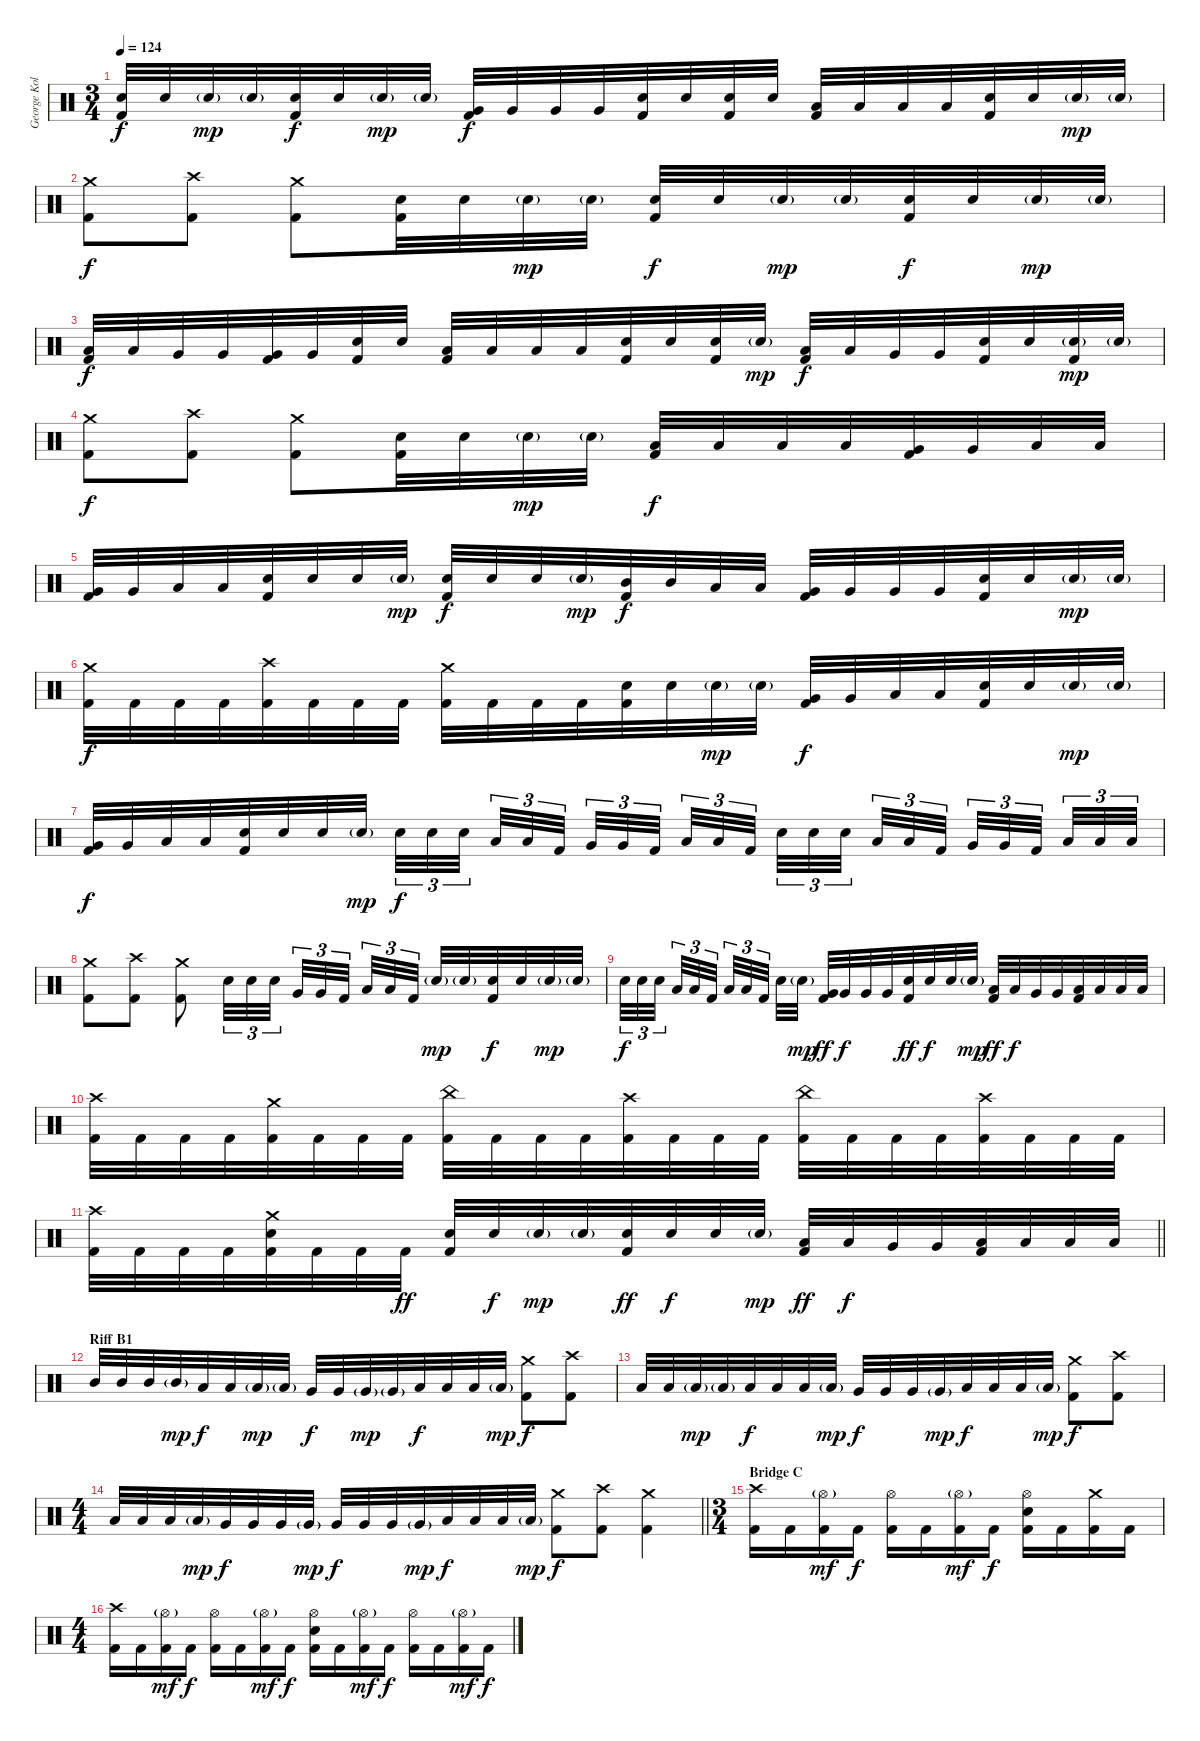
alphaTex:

\track ("George Kollias" "George Kol") {instrument percussion}
\staff {score}
\articulation defaults
\ts (3 4)
\tempo 124
\clef neutral
\ks c
("Electric Snare (hit)" "Kick (hit) 2").32{dy f} "Electric Snare (hit)".32 "Electric Snare (hit)"{g}.32{dy mp} "Electric Snare (hit)"{g}.32 ("Electric Snare (hit)" "Kick (hit) 2").32{dy f} "Electric Snare (hit)".32 "Electric Snare (hit)"{g}.32{dy mp} "Electric Snare (hit)"{g}.32 ("Very Low Tom (hit)" "Kick (hit) 2").32{dy f} "Very Low Tom (hit)".32 "Very Low Tom (hit)".32 "Very Low Tom (hit)".32 ("Electric Snare (hit)" "Kick (hit) 2").32 "Electric Snare (hit)".32 ("Electric Snare (hit)" "Kick (hit) 2").32 "Electric Snare (hit)".32 ("Low Tom (hit)" "Kick (hit) 2").32 "Low Tom (hit)".32 "Low Tom (hit)".32 "Low Tom (hit)".32 ("Electric Snare (hit)" "Kick (hit) 2").32 "Electric Snare (hit)".32 "Electric Snare (hit)"{g}.32{dy mp} "Electric Snare (hit)"{g}.32 |
("Crash medium (hit)" "Kick (hit) 2").8{dy f} ("Crash high (hit)" "Kick (hit) 2").8 ("Crash medium (hit)" "Kick (hit) 2").8 ("Electric Snare (hit)" "Kick (hit) 2").32 "Electric Snare (hit)".32 "Electric Snare (hit)"{g}.32{dy mp} "Electric Snare (hit)"{g}.32 ("Electric Snare (hit)" "Kick (hit) 2").32{dy f} "Electric Snare (hit)".32 "Electric Snare (hit)"{g}.32{dy mp} "Electric Snare (hit)"{g}.32 ("Electric Snare (hit)" "Kick (hit) 2").32{dy f} "Electric Snare (hit)".32 "Electric Snare (hit)"{g}.32{dy mp} "Electric Snare (hit)"{g}.32 |
("Low Tom (hit)" "Kick (hit) 2").32{dy f} "Low Tom (hit)".32 "Very Low Tom (hit)".32 "Very Low Tom (hit)".32 ("Very Low Tom (hit)" "Kick (hit) 2").32 "Very Low Tom (hit)".32 ("Electric Snare (hit)" "Kick (hit) 2").32 "Electric Snare (hit)".32 ("Low Floor Tom (hit)" "Kick (hit) 2").32 "Low Floor Tom (hit)".32 "Low Floor Tom (hit)".32 "Low Floor Tom (hit)".32 ("Electric Snare (hit)" "Kick (hit) 2").32 "Electric Snare (hit)".32 ("Electric Snare (hit)" "Kick (hit) 2").32 "Electric Snare (hit)"{g}.32{dy mp} ("Low Tom (hit)" "Kick (hit) 2").32{dy f} "Low Tom (hit)".32 "Very Low Tom (hit)".32 "Very Low Tom (hit)".32 ("Electric Snare (hit)" "Kick (hit) 2").32 "Electric Snare (hit)".32 ("Electric Snare (hit)"{g} "Kick (hit) 2").32{dy mp} "Electric Snare (hit)"{g}.32 |
("Crash medium (hit)" "Kick (hit) 2").8{dy f} ("Crash high (hit)" "Kick (hit) 2").8 ("Crash medium (hit)" "Kick (hit) 2").8 ("Electric Snare (hit)" "Kick (hit) 2").32 "Electric Snare (hit)".32 "Electric Snare (hit)"{g}.32{dy mp} "Electric Snare (hit)"{g}.32 ("Low Tom (hit)" "Kick (hit) 2").32{dy f} "Low Tom (hit)".32 "Low Tom (hit)".32 "Low Tom (hit)".32 ("Very Low Tom (hit)" "Kick (hit) 2").32 "Very Low Tom (hit)".32 "Low Floor Tom (hit)".32 "Low Floor Tom (hit)".32 |
("Very Low Tom (hit)" "Kick (hit) 2").32 "Very Low Tom (hit)".32 "Low Floor Tom (hit)".32 "Low Floor Tom (hit)".32 ("Electric Snare (hit)" "Kick (hit) 2").32 "Electric Snare (hit)".32 "Electric Snare (hit)".32 "Electric Snare (hit)"{g}.32{dy mp} ("Electric Snare (hit)" "Kick (hit) 2").32{dy f} "Electric Snare (hit)".32 "Electric Snare (hit)".32 "Electric Snare (hit)"{g}.32{dy mp} ("Mid Tom (hit)" "Kick (hit) 2").32{dy f} "Mid Tom (hit)".32 "Low Tom (hit)".32 "Low Tom (hit)".32 ("Very Low Tom (hit)" "Kick (hit) 2").32 "Very Low Tom (hit)".32 "Very Low Tom (hit)".32 "Very Low Tom (hit)".32 ("Electric Snare (hit)" "Kick (hit) 2").32 "Electric Snare (hit)".32 "Electric Snare (hit)"{g}.32{dy mp} "Electric Snare (hit)"{g}.32 |
("Crash medium (hit)" "Kick (hit) 2").32{dy f} "Kick (hit) 2".32 "Kick (hit) 2".32 "Kick (hit) 2".32 ("Crash high (hit)" "Kick (hit) 2").32 "Kick (hit) 2".32 "Kick (hit) 2".32 "Kick (hit) 2".32 ("Crash medium (hit)" "Kick (hit) 2").32 "Kick (hit) 2".32 "Kick (hit) 2".32 "Kick (hit) 2".32 ("Electric Snare (hit)" "Kick (hit) 2").32 "Electric Snare (hit)".32 "Electric Snare (hit)"{g}.32{dy mp} "Electric Snare (hit)"{g}.32 ("Very Low Tom (hit)" "Kick (hit) 2").32{dy f} "Very Low Tom (hit)".32 "Low Floor Tom (hit)".32 "Low Floor Tom (hit)".32 ("Electric Snare (hit)" "Kick (hit) 2").32 "Electric Snare (hit)".32 "Electric Snare (hit)"{g}.32{dy mp} "Electric Snare (hit)"{g}.32 |
("Very Low Tom (hit)" "Kick (hit) 2").32{dy f} "Very Low Tom (hit)".32 "Low Floor Tom (hit)".32 "Low Floor Tom (hit)".32 ("Electric Snare (hit)" "Kick (hit) 2").32 "Electric Snare (hit)".32 "Electric Snare (hit)".32 "Electric Snare (hit)"{g}.32{dy mp} "Electric Snare (hit)".32{tu (3 2) dy f} "Electric Snare (hit)".32{tu (3 2)} "Electric Snare (hit)".32{tu (3 2) beam splitsecondary} "Low Tom (hit)".32{tu (3 2)} "Low Tom (hit)".32{tu (3 2)} "Kick (hit) 2".32{tu (3 2) beam splitsecondary} "Very Low Tom (hit)".32{tu (3 2)} "Very Low Tom (hit)".32{tu (3 2)} "Kick (hit) 2".32{tu (3 2) beam splitsecondary} "Low Floor Tom (hit)".32{tu (3 2)} "Low Floor Tom (hit)".32{tu (3 2)} "Kick (hit) 2".32{tu (3 2)} "Electric Snare (hit)".32{tu (3 2)} "Electric Snare (hit)".32{tu (3 2)} "Electric Snare (hit)".32{tu (3 2) beam splitsecondary} "Low Tom (hit)".32{tu (3 2)} "Low Tom (hit)".32{tu (3 2)} "Kick (hit) 2".32{tu (3 2) beam splitsecondary} "Very Low Tom (hit)".32{tu (3 2)} "Very Low Tom (hit)".32{tu (3 2)} "Kick (hit) 2".32{tu (3 2) beam splitsecondary} "Low Floor Tom (hit)".32{tu (3 2)} "Low Floor Tom (hit)".32{tu (3 2)} "Low Floor Tom (hit)".32{tu (3 2)} |
("Crash medium (hit)" "Kick (hit) 2").8 ("Crash high (hit)" "Kick (hit) 2").8 ("Crash medium (hit)" "Kick (hit) 2").8 "Electric Snare (hit)".32{tu (3 2)} "Electric Snare (hit)".32{tu (3 2)} "Electric Snare (hit)".32{tu (3 2) beam splitsecondary} "Very Low Tom (hit)".32{tu (3 2)} "Very Low Tom (hit)".32{tu (3 2)} "Kick (hit) 2".32{tu (3 2)} "Low Floor Tom (hit)".32{tu (3 2)} "Low Floor Tom (hit)".32{tu (3 2)} "Kick (hit) 2".32{tu (3 2) beam splitsecondary} "Electric Snare (hit)"{g}.32{dy mp} "Electric Snare (hit)"{g}.32 ("Electric Snare (hit)" "Kick (hit) 2").32{dy f} "Electric Snare (hit)".32 "Electric Snare (hit)"{g}.32{dy mp} "Electric Snare (hit)"{g}.32 |
"Electric Snare (hit)".32{tu (3 2) dy f} "Electric Snare (hit)".32{tu (3 2)} "Electric Snare (hit)".32{tu (3 2) beam splitsecondary} "Low Floor Tom (hit)".32{tu (3 2)} "Low Floor Tom (hit)".32{tu (3 2)} "Kick (hit) 2".32{tu (3 2) beam splitsecondary} "Low Floor Tom (hit)".32{tu (3 2)} "Low Floor Tom (hit)".32{tu (3 2)} "Kick (hit) 2".32{tu (3 2) beam splitsecondary} "Electric Snare (hit)".32 "Electric Snare (hit)"{g}.32{dy mp} ("Very Low Tom (hit)" "Kick (hit) 2").32{dy ff} "Very Low Tom (hit)".32{dy f} "Very Low Tom (hit)".32 "Very Low Tom (hit)".32 ("Electric Snare (hit)" "Kick (hit) 2").32{dy ff} "Electric Snare (hit)".32{dy f} "Electric Snare (hit)".32 "Electric Snare (hit)"{g}.32{dy mp} ("Low Tom (hit)" "Kick (hit) 2").32{dy ff} "Low Tom (hit)".32{dy f} "Very Low Tom (hit)".32 "Very Low Tom (hit)".32 ("Low Floor Tom (hit)" "Kick (hit) 2").32 "Low Floor Tom (hit)".32 "Low Floor Tom (hit)".32 "Low Floor Tom (hit)".32 |
("Crash high (hit)" "Kick (hit) 2").32 "Kick (hit) 2".32 "Kick (hit) 2".32 "Kick (hit) 2".32 ("Crash medium (hit)" "Kick (hit) 2").32 "Kick (hit) 2".32 "Kick (hit) 2".32 "Kick (hit) 2".32 ("China (hit)" "Kick (hit) 2").32 "Kick (hit) 2".32 "Kick (hit) 2".32 "Kick (hit) 2".32 ("Crash high (hit)" "Kick (hit) 2").32 "Kick (hit) 2".32 "Kick (hit) 2".32 "Kick (hit) 2".32 ("China (hit)" "Kick (hit) 2").32 "Kick (hit) 2".32 "Kick (hit) 2".32 "Kick (hit) 2".32 ("Crash high (hit)" "Kick (hit) 2").32 "Kick (hit) 2".32 "Kick (hit) 2".32 "Kick (hit) 2".32 |
\barLineRight lightlight
("Crash high (hit)" "Kick (hit) 2").32 "Kick (hit) 2".32 "Kick (hit) 2".32 "Kick (hit) 2".32 ("Crash medium (hit)" "Electric Snare (hit)" "Kick (hit) 2").32 "Kick (hit) 2".32 "Kick (hit) 2".32 "Kick (hit) 2".32{dy ff} ("Electric Snare (hit)" "Kick (hit) 2").32 "Electric Snare (hit)".32{dy f} "Electric Snare (hit)"{g}.32{dy mp} "Electric Snare (hit)"{g}.32 ("Electric Snare (hit)" "Kick (hit) 2").32{dy ff} "Electric Snare (hit)".32{dy f} "Electric Snare (hit)".32 "Electric Snare (hit)"{g}.32{dy mp} ("Low Tom (hit)" "Kick (hit) 2").32{dy ff} "Low Tom (hit)".32{dy f} "Very Low Tom (hit)".32 "Very Low Tom (hit)".32 ("Low Floor Tom (hit)" "Kick (hit) 2").32 "Low Floor Tom (hit)".32 "Low Floor Tom (hit)".32 "Low Floor Tom (hit)".32 |
\section ("" "Riff B1")
"Mid Tom (hit)".32 "Mid Tom (hit)".32 "Mid Tom (hit)".32 "Mid Tom (hit)"{g}.32{dy mp} "Low Tom (hit)".32{dy f} "Low Tom (hit)".32 "Low Tom (hit)"{g}.32{dy mp} "Low Tom (hit)"{g}.32 "Very Low Tom (hit)".32{dy f} "Very Low Tom (hit)".32 "Very Low Tom (hit)"{g}.32{dy mp} "Very Low Tom (hit)"{g}.32 "Low Floor Tom (hit)".32{dy f} "Low Floor Tom (hit)".32 "Low Floor Tom (hit)".32 "Low Floor Tom (hit)"{g}.32{dy mp} ("Crash medium (hit)" "Kick (hit) 2").8{dy f} ("Crash high (hit)" "Kick (hit) 2").8 |
"Low Tom (hit)".32 "Low Tom (hit)".32 "Low Tom (hit)"{g}.32{dy mp} "Low Tom (hit)"{g}.32 "Low Tom (hit)".32{dy f} "Low Tom (hit)".32 "Low Tom (hit)".32 "Low Tom (hit)"{g}.32{dy mp} "Very Low Tom (hit)".32{dy f} "Very Low Tom (hit)".32 "Very Low Tom (hit)".32 "Very Low Tom (hit)"{g}.32{dy mp} "Low Floor Tom (hit)".32{dy f} "Low Floor Tom (hit)".32 "Low Floor Tom (hit)".32 "Low Floor Tom (hit)"{g}.32{dy mp} ("Crash medium (hit)" "Kick (hit) 2").8{dy f} ("Crash high (hit)" "Kick (hit) 2").8 |
\ts (4 4)
\barLineRight lightlight "Low Tom (hit)".32 "Low Tom (hit)".32 "Low Tom (hit)".32 "Low Tom (hit)"{g}.32{dy mp} "Very Low Tom (hit)".32{dy f} "Very Low Tom (hit)".32 "Very Low Tom (hit)".32 "Very Low Tom (hit)"{g}.32{dy mp} "Very Low Tom (hit)".32{dy f} "Very Low Tom (hit)".32 "Very Low Tom (hit)".32 "Very Low Tom (hit)"{g}.32{dy mp} "Low Floor Tom (hit)".32{dy f} "Low Floor Tom (hit)".32 "Low Floor Tom (hit)".32 "Low Floor Tom (hit)"{g}.32{dy mp}
("Crash medium (hit)" "Kick (hit) 2").8{dy f} ("Crash high (hit)" "Kick (hit) 2").8 ("Crash medium (hit)" "Kick (hit) 2").4 |
\ts (3 4)
\section ("" "Bridge C")
("Crash high (hit)" "Kick (hit) 2").16 "Kick (hit) 2".16 ("Hi-Hat (open)"{g} "Kick (hit) 2").16{dy mf} "Kick (hit) 2".16{dy f} ("Hi-Hat (open)" "Kick (hit) 2").16 "Kick (hit) 2".16 ("Hi-Hat (open)"{g} "Kick (hit) 2").16{dy mf} "Kick (hit) 2".16{dy f} ("Hi-Hat (open)" "Electric Snare (hit)" "Kick (hit) 2").16 "Kick (hit) 2".16 ("Crash medium (hit)" "Kick (hit) 2").16 "Kick (hit) 2".16 |
\ts (4 4)
("Crash high (hit)" "Kick (hit) 2").16 "Kick (hit) 2".16 ("Hi-Hat (open)"{g} "Kick (hit) 2").16{dy mf} "Kick (hit) 2".16{dy f} ("Hi-Hat (open)" "Kick (hit) 2").16 "Kick (hit) 2".16 ("Hi-Hat (open)"{g} "Kick (hit) 2").16{dy mf} "Kick (hit) 2".16{dy f} ("Hi-Hat (open)" "Electric Snare (hit)" "Kick (hit) 2").16 "Kick (hit) 2".16 ("Hi-Hat (open)"{g} "Kick (hit) 2").16{dy mf} "Kick (hit) 2".16{dy f} ("Hi-Hat (open)" "Kick (hit) 2").16 "Kick (hit) 2".16 ("Hi-Hat (open)"{g} "Kick (hit) 2").16{dy mf} "Kick (hit) 2".16{dy f}
